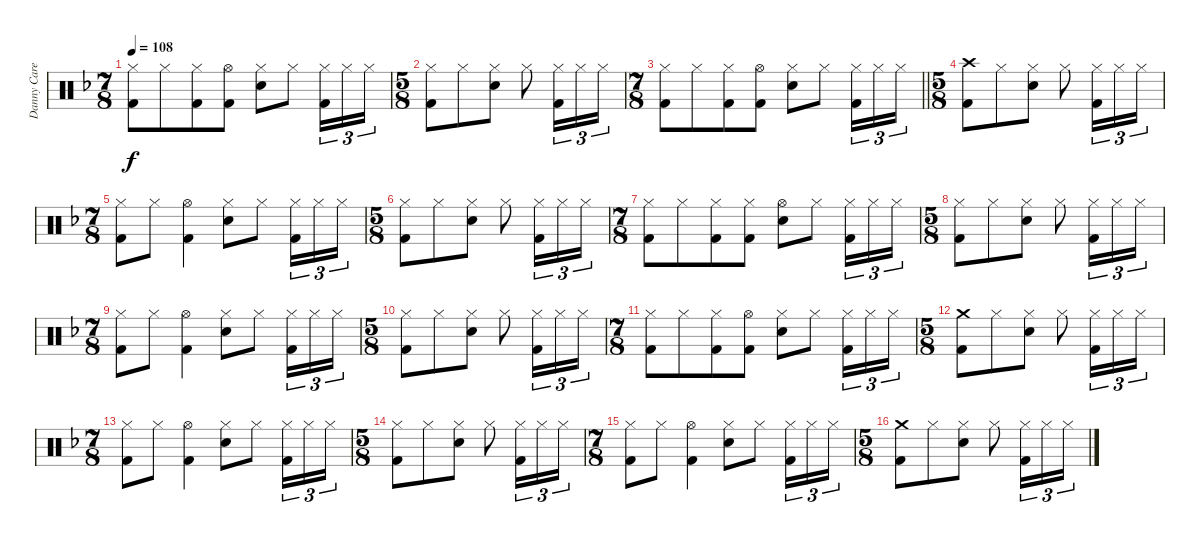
\track ("Danny Carey" "Danny Care") {instrument percussion}
\staff {score}
\articulation defaults
\ts (7 8)
\tempo 108
\clef neutral
\ks dminor
("Hi-Hat (closed)" "Kick (hit) 2").8{dy f} "Hi-Hat (closed)".8 ("Hi-Hat (closed)" "Kick (hit) 2").8 ("Hi-Hat (open)" "Kick (hit) 2").8 ("Hi-Hat (closed)" "Electric Snare (hit)").8 "Hi-Hat (closed)".8 ("Hi-Hat (closed)" "Kick (hit) 2").16{tu (3 2)} "Hi-Hat (closed)".16{tu (3 2)} "Hi-Hat (closed)".16{tu (3 2)} |
\ts (5 8)
("Hi-Hat (closed)" "Kick (hit) 2").8 "Hi-Hat (closed)".8 ("Hi-Hat (closed)" "Electric Snare (hit)").8 "Hi-Hat (closed)".8 ("Hi-Hat (closed)" "Kick (hit) 2").16{tu (3 2)} "Hi-Hat (closed)".16{tu (3 2)} "Hi-Hat (closed)".16{tu (3 2)} |
\ts (7 8)
\barLineRight lightlight
("Hi-Hat (closed)" "Kick (hit) 2").8 "Hi-Hat (closed)".8 ("Hi-Hat (closed)" "Kick (hit) 2").8 ("Hi-Hat (open)" "Kick (hit) 2").8 ("Hi-Hat (closed)" "Electric Snare (hit)").8 "Hi-Hat (closed)".8 ("Hi-Hat (closed)" "Kick (hit) 2").16{tu (3 2)} "Hi-Hat (closed)".16{tu (3 2)} "Hi-Hat (closed)".16{tu (3 2)} |
\ts (5 8)
("Crash high (hit)" "Kick (hit) 2").8 "Hi-Hat (closed)".8 ("Hi-Hat (closed)" "Electric Snare (hit)").8 "Hi-Hat (closed)".8 ("Hi-Hat (closed)" "Kick (hit) 2").16{tu (3 2)} "Hi-Hat (closed)".16{tu (3 2)} "Hi-Hat (closed)".16{tu (3 2)} |
\ts (7 8)
("Hi-Hat (closed)" "Kick (hit) 2").8 "Hi-Hat (closed)".8 ("Hi-Hat (open)" "Kick (hit) 2").4 ("Hi-Hat (closed)" "Electric Snare (hit)").8 "Hi-Hat (closed)".8 ("Hi-Hat (closed)" "Kick (hit) 2").16{tu (3 2)} "Hi-Hat (closed)".16{tu (3 2)} "Hi-Hat (closed)".16{tu (3 2)} |
\ts (5 8)
("Hi-Hat (closed)" "Kick (hit) 2").8 "Hi-Hat (closed)".8 ("Hi-Hat (closed)" "Electric Snare (hit)").8 "Hi-Hat (closed)".8 ("Hi-Hat (closed)" "Kick (hit) 2").16{tu (3 2)} "Hi-Hat (closed)".16{tu (3 2)} "Hi-Hat (closed)".16{tu (3 2)} |
\ts (7 8)
("Hi-Hat (closed)" "Kick (hit) 2").8 "Hi-Hat (closed)".8 ("Hi-Hat (closed)" "Kick (hit) 2").8 ("Hi-Hat (closed)" "Kick (hit) 2").8 ("Hi-Hat (open)" "Electric Snare (hit)").8 "Hi-Hat (closed)".8 ("Hi-Hat (closed)" "Kick (hit) 2").16{tu (3 2)} "Hi-Hat (closed)".16{tu (3 2)} "Hi-Hat (closed)".16{tu (3 2)} |
\ts (5 8)
("Hi-Hat (closed)" "Kick (hit) 2").8 "Hi-Hat (closed)".8 ("Hi-Hat (closed)" "Electric Snare (hit)").8 "Hi-Hat (closed)".8 ("Hi-Hat (closed)" "Kick (hit) 2").16{tu (3 2)} "Hi-Hat (closed)".16{tu (3 2)} "Hi-Hat (closed)".16{tu (3 2)} |
\ts (7 8)
("Hi-Hat (closed)" "Kick (hit) 2").8 "Hi-Hat (closed)".8 ("Hi-Hat (open)" "Kick (hit) 2").4 ("Hi-Hat (closed)" "Electric Snare (hit)").8 "Hi-Hat (closed)".8 ("Hi-Hat (closed)" "Kick (hit) 2").16{tu (3 2)} "Hi-Hat (closed)".16{tu (3 2)} "Hi-Hat (closed)".16{tu (3 2)} |
\ts (5 8)
("Hi-Hat (closed)" "Kick (hit) 2").8 "Hi-Hat (closed)".8 ("Hi-Hat (closed)" "Electric Snare (hit)").8 "Hi-Hat (closed)".8 ("Hi-Hat (closed)" "Kick (hit) 2").16{tu (3 2)} "Hi-Hat (closed)".16{tu (3 2)} "Hi-Hat (closed)".16{tu (3 2)} |
\ts (7 8)
("Hi-Hat (closed)" "Kick (hit) 2").8 "Hi-Hat (closed)".8 ("Hi-Hat (closed)" "Kick (hit) 2").8 ("Hi-Hat (open)" "Kick (hit) 2").8 ("Hi-Hat (closed)" "Electric Snare (hit)").8 "Hi-Hat (closed)".8 ("Hi-Hat (closed)" "Kick (hit) 2").16{tu (3 2)} "Hi-Hat (closed)".16{tu (3 2)} "Hi-Hat (closed)".16{tu (3 2)} |
\ts (5 8)
("Crash medium (hit)" "Kick (hit) 2").8 "Hi-Hat (closed)".8 ("Hi-Hat (closed)" "Electric Snare (hit)").8 "Hi-Hat (closed)".8 ("Hi-Hat (closed)" "Kick (hit) 2").16{tu (3 2)} "Hi-Hat (closed)".16{tu (3 2)} "Hi-Hat (closed)".16{tu (3 2)} |
\ts (7 8)
("Hi-Hat (closed)" "Kick (hit) 2").8 "Hi-Hat (closed)".8 ("Hi-Hat (open)" "Kick (hit) 2").4 ("Hi-Hat (closed)" "Electric Snare (hit)").8 "Hi-Hat (closed)".8 ("Hi-Hat (closed)" "Kick (hit) 2").16{tu (3 2)} "Hi-Hat (closed)".16{tu (3 2)} "Hi-Hat (closed)".16{tu (3 2)} |
\ts (5 8)
("Hi-Hat (closed)" "Kick (hit) 2").8 "Hi-Hat (closed)".8 ("Hi-Hat (closed)" "Electric Snare (hit)").8 "Hi-Hat (closed)".8 ("Hi-Hat (closed)" "Kick (hit) 2").16{tu (3 2)} "Hi-Hat (closed)".16{tu (3 2)} "Hi-Hat (closed)".16{tu (3 2)} |
\ts (7 8)
("Hi-Hat (closed)" "Kick (hit) 2").8 "Hi-Hat (closed)".8 ("Hi-Hat (open)" "Kick (hit) 2").4 ("Hi-Hat (closed)" "Electric Snare (hit)").8 "Hi-Hat (closed)".8 ("Hi-Hat (closed)" "Kick (hit) 2").16{tu (3 2)} "Hi-Hat (closed)".16{tu (3 2)} "Hi-Hat (closed)".16{tu (3 2)} |
\ts (5 8)
("Crash medium (hit)" "Kick (hit) 2").8 "Hi-Hat (closed)".8 ("Hi-Hat (closed)" "Electric Snare (hit)").8 "Hi-Hat (closed)".8 ("Hi-Hat (closed)" "Kick (hit) 2").16{tu (3 2)} "Hi-Hat (closed)".16{tu (3 2)} "Hi-Hat (closed)".16{tu (3 2)}
